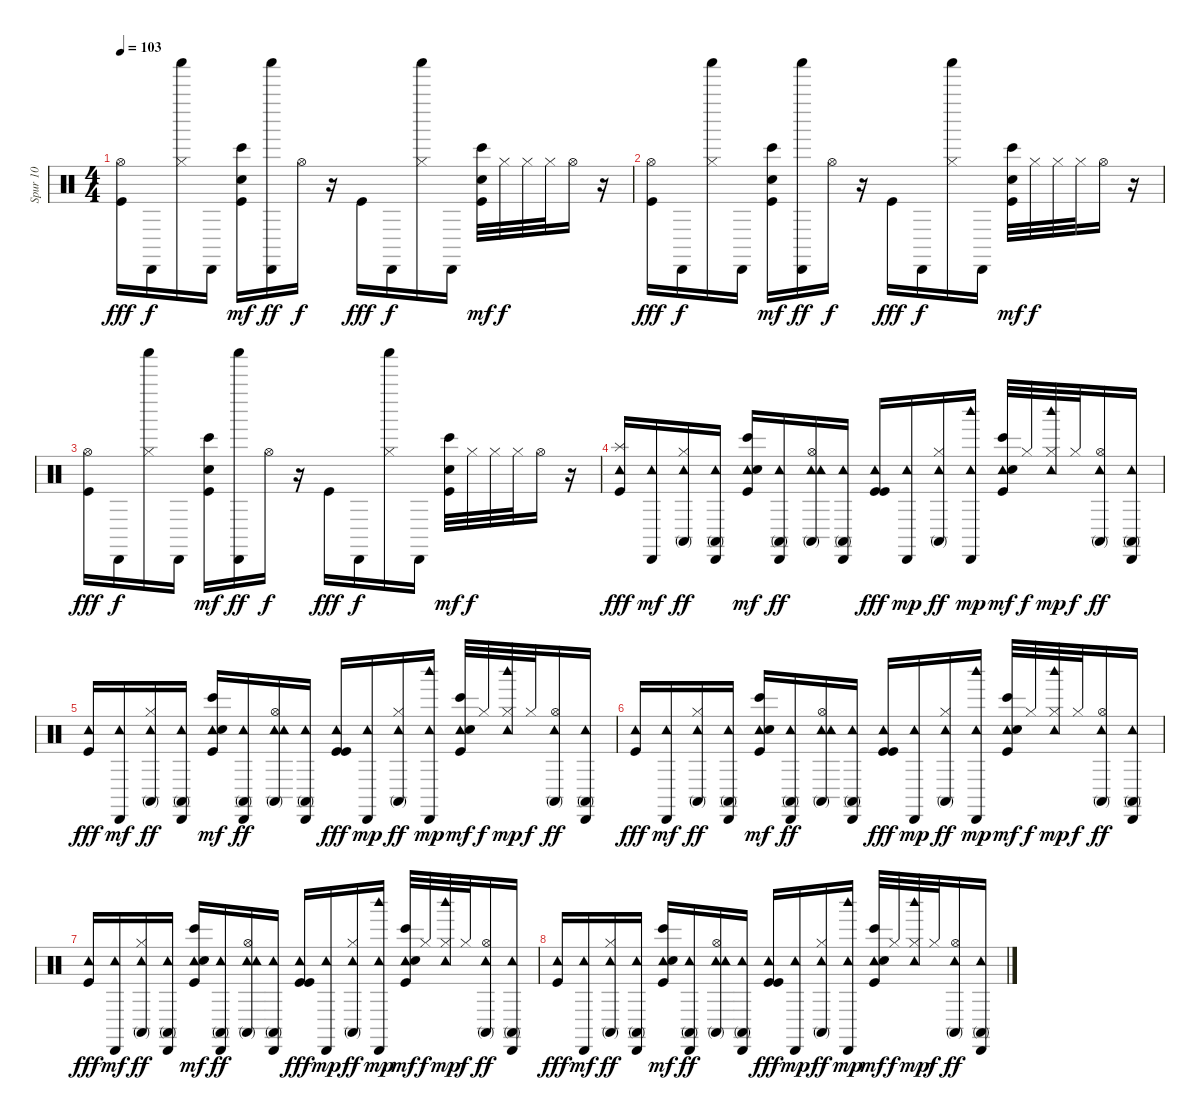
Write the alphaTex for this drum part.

\track ("Spur 10" "Spur 10") {instrument percussion}
\staff {score}
\articulation defaults
\ts (4 4)
\tempo 103
\clef neutral
\ks c
("Hi-Hat (open)" "Kick (hit)").16{dy fff} "Cabasa (hit)".16{dy f} ("Shaker (hit)" "Hi-Hat (closed)").16 "Cabasa (hit)".16 ("Kick (hit)" "Electric Snare (hit)" "Bongo High (hit)").16{dy mf} ("Cabasa (hit)" "Shaker (hit)").16{dy ff} "Hi-Hat (open)".16{dy f} r.16 "Kick (hit)".16{dy fff} "Cabasa (hit)".16{dy f} ("Hi-Hat (closed)" "Shaker (hit)").16 "Cabasa (hit)".16 ("Kick (hit)" "Electric Snare (hit)" "Bongo High (hit)").32{dy mf} "Hi-Hat (closed)".32{dy f} "Hi-Hat (closed)".32 "Hi-Hat (closed)".32 "Hi-Hat (open)".16 r.16 |
("Hi-Hat (open)" "Kick (hit)").16{dy fff} "Cabasa (hit)".16{dy f} ("Shaker (hit)" "Hi-Hat (closed)").16 "Cabasa (hit)".16 ("Kick (hit)" "Electric Snare (hit)" "Bongo High (hit)").16{dy mf} ("Cabasa (hit)" "Shaker (hit)").16{dy ff} "Hi-Hat (open)".16{dy f} r.16 "Kick (hit)".16{dy fff} "Cabasa (hit)".16{dy f} ("Hi-Hat (closed)" "Shaker (hit)").16 "Cabasa (hit)".16 ("Kick (hit)" "Electric Snare (hit)" "Bongo High (hit)").32{dy mf} "Hi-Hat (closed)".32{dy f} "Hi-Hat (closed)".32 "Hi-Hat (closed)".32 "Hi-Hat (open)".16 r.16 |
("Hi-Hat (open)" "Kick (hit)").16{dy fff} "Cabasa (hit)".16{dy f} ("Shaker (hit)" "Hi-Hat (closed)").16 "Cabasa (hit)".16 ("Kick (hit)" "Electric Snare (hit)" "Bongo High (hit)").16{dy mf} ("Cabasa (hit)" "Shaker (hit)").16{dy ff} "Hi-Hat (open)".16{dy f} r.16 "Kick (hit)".16{dy fff} "Cabasa (hit)".16{dy f} ("Hi-Hat (closed)" "Shaker (hit)").16 "Cabasa (hit)".16 ("Kick (hit)" "Electric Snare (hit)" "Bongo High (hit)").32{dy mf} "Hi-Hat (closed)".32{dy f} "Hi-Hat (closed)".32 "Hi-Hat (closed)".32 "Hi-Hat (open)".16 r.16 |
("Tambourine (hit)" "Splash (hit)" "Kick (hit)").16{dy fff} ("Tambourine (hit)" "Cabasa (hit)").16{dy mf} ("Tambourine (hit)" "Hi-Hat (closed)" "Conga high (mute)").16{dy ff} ("Tambourine (hit)" "Cabasa (hit)" "Conga high (mute)").16 ("Tambourine (hit)" "Kick (hit)" "Electric Snare (hit)" "Bongo High (hit)").16{dy mf} ("Tambourine (hit)" "Cabasa (hit)" "Conga high (mute)").16{dy ff} ("Tambourine (hit)" "Hi-Hat (open)" "Tambourine (hit)" "Conga high (mute)").16 ("Tambourine (hit)" "Cabasa (hit)" "Conga high (mute)").16 ("Tambourine (hit)" "Kick (hit)" "Kick (hit)").16{dy fff} ("Cabasa (hit)" "Tambourine (hit)").16{dy mp} ("Hi-Hat (closed)" "Tambourine (hit)" "Conga high (mute)").16{dy ff} ("Cabasa (hit)" "Tambourine (hit)" "Woodblock high (hit)").16{dy mp} ("Tambourine (hit)" "Kick (hit)" "Electric Snare (hit)" "Bongo High (hit)").32{dy mf} "Hi-Hat (closed)".32{dy f} ("Hi-Hat (closed)" "Tambourine (hit)" "Woodblock high (hit)").32{dy mp} "Hi-Hat (closed)".32{dy f} ("Hi-Hat (open)" "Tambourine (hit)" "Conga high (mute)").16{dy ff} ("Tambourine (hit)" "Cabasa (hit)" "Conga high (mute)").16 |
("Tambourine (hit)" "Kick (hit)").16{dy fff} ("Tambourine (hit)" "Cabasa (hit)").16{dy mf} ("Tambourine (hit)" "Hi-Hat (closed)" "Conga high (mute)").16{dy ff} ("Tambourine (hit)" "Cabasa (hit)" "Conga high (mute)").16 ("Tambourine (hit)" "Kick (hit)" "Electric Snare (hit)" "Bongo High (hit)").16{dy mf} ("Tambourine (hit)" "Cabasa (hit)" "Conga high (mute)").16{dy ff} ("Tambourine (hit)" "Hi-Hat (open)" "Tambourine (hit)" "Conga high (mute)").16 ("Tambourine (hit)" "Cabasa (hit)" "Conga high (mute)").16 ("Tambourine (hit)" "Kick (hit)" "Kick (hit)").16{dy fff} ("Cabasa (hit)" "Tambourine (hit)").16{dy mp} ("Hi-Hat (closed)" "Tambourine (hit)" "Conga high (mute)").16{dy ff} ("Cabasa (hit)" "Tambourine (hit)" "Woodblock high (hit)").16{dy mp} ("Tambourine (hit)" "Kick (hit)" "Electric Snare (hit)" "Bongo High (hit)").32{dy mf} "Hi-Hat (closed)".32{dy f} ("Hi-Hat (closed)" "Tambourine (hit)" "Woodblock high (hit)").32{dy mp} "Hi-Hat (closed)".32{dy f} ("Hi-Hat (open)" "Tambourine (hit)" "Conga high (mute)").16{dy ff} ("Tambourine (hit)" "Cabasa (hit)" "Conga high (mute)").16 |
("Tambourine (hit)" "Kick (hit)").16{dy fff} ("Tambourine (hit)" "Cabasa (hit)").16{dy mf} ("Tambourine (hit)" "Hi-Hat (closed)" "Conga high (mute)").16{dy ff} ("Tambourine (hit)" "Cabasa (hit)" "Conga high (mute)").16 ("Tambourine (hit)" "Kick (hit)" "Electric Snare (hit)" "Bongo High (hit)").16{dy mf} ("Tambourine (hit)" "Cabasa (hit)" "Conga high (mute)").16{dy ff} ("Tambourine (hit)" "Hi-Hat (open)" "Tambourine (hit)" "Conga high (mute)").16 ("Tambourine (hit)" "Cabasa (hit)" "Conga high (mute)").16 ("Tambourine (hit)" "Kick (hit)" "Kick (hit)").16{dy fff} ("Cabasa (hit)" "Tambourine (hit)").16{dy mp} ("Hi-Hat (closed)" "Tambourine (hit)" "Conga high (mute)").16{dy ff} ("Cabasa (hit)" "Tambourine (hit)" "Woodblock high (hit)").16{dy mp} ("Tambourine (hit)" "Kick (hit)" "Electric Snare (hit)" "Bongo High (hit)").32{dy mf} "Hi-Hat (closed)".32{dy f} ("Hi-Hat (closed)" "Tambourine (hit)" "Woodblock high (hit)").32{dy mp} "Hi-Hat (closed)".32{dy f} ("Hi-Hat (open)" "Tambourine (hit)" "Conga high (mute)").16{dy ff} ("Tambourine (hit)" "Cabasa (hit)" "Conga high (mute)").16 |
("Tambourine (hit)" "Kick (hit)").16{dy fff} ("Tambourine (hit)" "Cabasa (hit)").16{dy mf} ("Tambourine (hit)" "Hi-Hat (closed)" "Conga high (mute)").16{dy ff} ("Tambourine (hit)" "Cabasa (hit)" "Conga high (mute)").16 ("Tambourine (hit)" "Kick (hit)" "Electric Snare (hit)" "Bongo High (hit)").16{dy mf} ("Tambourine (hit)" "Cabasa (hit)" "Conga high (mute)").16{dy ff} ("Tambourine (hit)" "Hi-Hat (open)" "Tambourine (hit)" "Conga high (mute)").16 ("Tambourine (hit)" "Cabasa (hit)" "Conga high (mute)").16 ("Tambourine (hit)" "Kick (hit)" "Kick (hit)").16{dy fff} ("Cabasa (hit)" "Tambourine (hit)").16{dy mp} ("Hi-Hat (closed)" "Tambourine (hit)" "Conga high (mute)").16{dy ff} ("Cabasa (hit)" "Tambourine (hit)" "Woodblock high (hit)").16{dy mp} ("Tambourine (hit)" "Kick (hit)" "Electric Snare (hit)" "Bongo High (hit)").32{dy mf} "Hi-Hat (closed)".32{dy f} ("Hi-Hat (closed)" "Tambourine (hit)" "Woodblock high (hit)").32{dy mp} "Hi-Hat (closed)".32{dy f} ("Hi-Hat (open)" "Tambourine (hit)" "Conga high (mute)").16{dy ff} ("Tambourine (hit)" "Cabasa (hit)" "Conga high (mute)").16 |
("Tambourine (hit)" "Kick (hit)").16{dy fff} ("Tambourine (hit)" "Cabasa (hit)").16{dy mf} ("Tambourine (hit)" "Hi-Hat (closed)" "Conga high (mute)").16{dy ff} ("Tambourine (hit)" "Cabasa (hit)" "Conga high (mute)").16 ("Tambourine (hit)" "Kick (hit)" "Electric Snare (hit)" "Bongo High (hit)").16{dy mf} ("Tambourine (hit)" "Cabasa (hit)" "Conga high (mute)").16{dy ff} ("Tambourine (hit)" "Hi-Hat (open)" "Tambourine (hit)" "Conga high (mute)").16 ("Tambourine (hit)" "Cabasa (hit)" "Conga high (mute)").16 ("Tambourine (hit)" "Kick (hit)" "Kick (hit)").16{dy fff} ("Cabasa (hit)" "Tambourine (hit)").16{dy mp} ("Hi-Hat (closed)" "Tambourine (hit)" "Conga high (mute)").16{dy ff} ("Cabasa (hit)" "Tambourine (hit)" "Woodblock high (hit)").16{dy mp} ("Tambourine (hit)" "Kick (hit)" "Electric Snare (hit)" "Bongo High (hit)").32{dy mf} "Hi-Hat (closed)".32{dy f} ("Hi-Hat (closed)" "Tambourine (hit)" "Woodblock high (hit)").32{dy mp} "Hi-Hat (closed)".32{dy f} ("Hi-Hat (open)" "Tambourine (hit)" "Conga high (mute)").16{dy ff} ("Tambourine (hit)" "Cabasa (hit)" "Conga high (mute)").16
